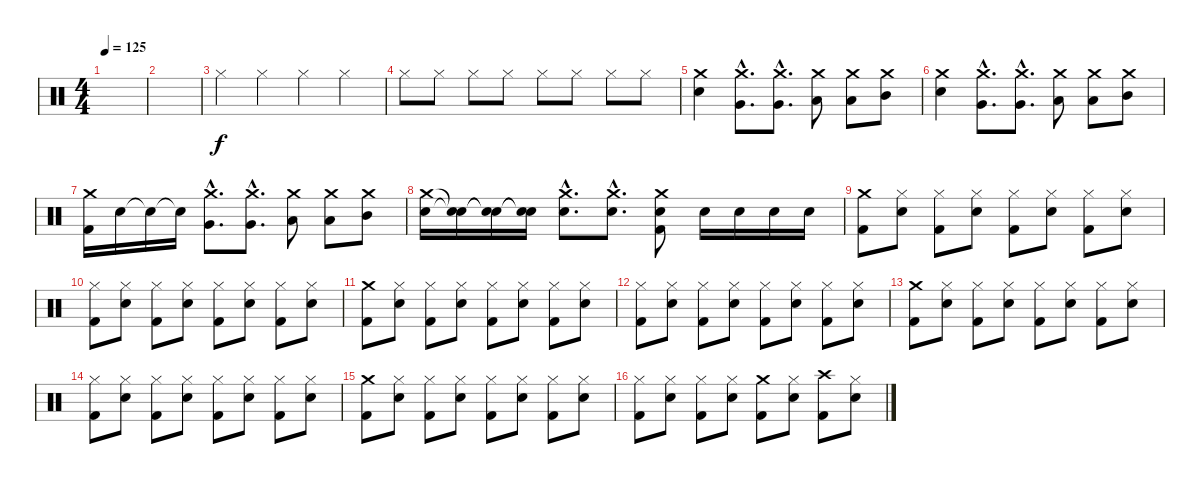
\track (" " " ") {instrument percussion}
\staff {score}
\articulation defaults
\ts (4 4)
\tempo 125
\clef neutral
\ks c
|
|
"Hi-Hat (closed)".4 "Hi-Hat (closed)".4 "Hi-Hat (closed)".4 "Hi-Hat (closed)".4 |
"Hi-Hat (closed)".8 "Hi-Hat (closed)".8 "Hi-Hat (closed)".8 "Hi-Hat (closed)".8 "Hi-Hat (closed)".8 "Hi-Hat (closed)".8 "Hi-Hat (closed)".8 "Hi-Hat (closed)".8 |
("Crash medium (hit)" "Snare (hit) 2").4 ("Crash medium (hit)"{hac} "Very Low Tom (hit)"{hac}).8{d} ("Crash medium (hit)"{hac} "Very Low Tom (hit)"{hac}).8{d} ("Crash medium (hit)" "Low Floor Tom (hit)").8 ("Crash medium (hit)" "Low Floor Tom (hit)").8 ("Crash medium (hit)" "Mid Tom (hit)").8 |
("Crash medium (hit)" "Snare (hit) 2").4 ("Crash medium (hit)"{hac} "Very Low Tom (hit)"{hac}).8{d} ("Crash medium (hit)"{hac} "Very Low Tom (hit)"{hac}).8{d} ("Crash medium (hit)" "Low Floor Tom (hit)").8 ("Crash medium (hit)" "Low Floor Tom (hit)").8 ("Crash medium (hit)" "Mid Tom (hit)").8 |
("Crash medium (hit)" "Kick (hit) 2").16 "Snare (hit) 2".16 "Snare (hit)"{t}.16 "Snare (hit)"{t}.16 ("Crash medium (hit)"{hac} "Very Low Tom (hit)"{hac}).8{d} ("Crash medium (hit)"{hac} "Very Low Tom (hit)"{hac}).8{d} ("Crash medium (hit)" "Low Floor Tom (hit)").8 ("Crash medium (hit)" "Low Floor Tom (hit)").8 ("Crash medium (hit)" "Mid Tom (hit)").8 |
("Crash medium (hit)" "Snare (hit) 2").16 ("Snare (hit)"{t} "Snare (hit)"{t}).16 ("Snare (hit)"{t} "Snare (hit)"{t}).16 ("Snare (hit)"{t} "Snare (hit)"{t}).16 ("Crash medium (hit)"{hac} "Snare (hit) 2"{hac}).8{d} ("Crash medium (hit)"{hac} "Snare (hit) 2"{hac}).8{d} ("Crash medium (hit)" "Snare (hit) 2" "Kick (hit) 2").8 "Snare (hit) 2".16 "Snare (hit) 2".16 "Snare (hit) 2".16 "Snare (hit) 2".16 |
("Crash medium (hit)" "Kick (hit) 2").8 ("Hi-Hat (closed)" "Snare (hit) 2").8 ("Hi-Hat (closed)" "Kick (hit) 2").8 ("Hi-Hat (closed)" "Snare (hit) 2").8 ("Hi-Hat (closed)" "Kick (hit) 2").8 ("Hi-Hat (closed)" "Snare (hit) 2").8 ("Hi-Hat (closed)" "Kick (hit) 2").8 ("Hi-Hat (closed)" "Snare (hit) 2").8 |
("Hi-Hat (closed)" "Kick (hit) 2").8 ("Hi-Hat (closed)" "Snare (hit) 2").8 ("Hi-Hat (closed)" "Kick (hit) 2").8 ("Hi-Hat (closed)" "Snare (hit) 2").8 ("Hi-Hat (closed)" "Kick (hit) 2").8 ("Hi-Hat (closed)" "Snare (hit) 2").8 ("Hi-Hat (closed)" "Kick (hit) 2").8 ("Hi-Hat (closed)" "Snare (hit) 2").8 |
("Crash medium (hit)" "Kick (hit) 2").8 ("Hi-Hat (closed)" "Snare (hit) 2").8 ("Hi-Hat (closed)" "Kick (hit) 2").8 ("Hi-Hat (closed)" "Snare (hit) 2").8 ("Hi-Hat (closed)" "Kick (hit) 2").8 ("Hi-Hat (closed)" "Snare (hit) 2").8 ("Hi-Hat (closed)" "Kick (hit) 2").8 ("Hi-Hat (closed)" "Snare (hit) 2").8 |
("Hi-Hat (closed)" "Kick (hit) 2").8 ("Hi-Hat (closed)" "Snare (hit) 2").8 ("Hi-Hat (closed)" "Kick (hit) 2").8 ("Hi-Hat (closed)" "Snare (hit) 2").8 ("Hi-Hat (closed)" "Kick (hit) 2").8 ("Hi-Hat (closed)" "Snare (hit) 2").8 ("Hi-Hat (closed)" "Kick (hit) 2").8 ("Hi-Hat (closed)" "Snare (hit) 2").8 |
("Crash medium (hit)" "Kick (hit) 2").8 ("Hi-Hat (closed)" "Snare (hit) 2").8 ("Hi-Hat (closed)" "Kick (hit) 2").8 ("Hi-Hat (closed)" "Snare (hit) 2").8 ("Hi-Hat (closed)" "Kick (hit) 2").8 ("Hi-Hat (closed)" "Snare (hit) 2").8 ("Hi-Hat (closed)" "Kick (hit) 2").8 ("Hi-Hat (closed)" "Snare (hit) 2").8 |
("Hi-Hat (closed)" "Kick (hit) 2").8 ("Hi-Hat (closed)" "Snare (hit) 2").8 ("Hi-Hat (closed)" "Kick (hit) 2").8 ("Hi-Hat (closed)" "Snare (hit) 2").8 ("Hi-Hat (closed)" "Kick (hit) 2").8 ("Hi-Hat (closed)" "Snare (hit) 2").8 ("Hi-Hat (closed)" "Kick (hit) 2").8 ("Hi-Hat (closed)" "Snare (hit) 2").8 |
("Crash medium (hit)" "Kick (hit) 2").8 ("Hi-Hat (closed)" "Snare (hit) 2").8 ("Hi-Hat (closed)" "Kick (hit) 2").8 ("Hi-Hat (closed)" "Snare (hit) 2").8 ("Hi-Hat (closed)" "Kick (hit) 2").8 ("Hi-Hat (closed)" "Snare (hit) 2").8 ("Hi-Hat (closed)" "Kick (hit) 2").8 ("Hi-Hat (closed)" "Snare (hit) 2").8 |
("Hi-Hat (closed)" "Kick (hit) 2").8 ("Hi-Hat (closed)" "Snare (hit) 2").8 ("Hi-Hat (closed)" "Kick (hit) 2").8 ("Hi-Hat (closed)" "Snare (hit) 2").8 ("Crash medium (hit)" "Kick (hit) 2").8 ("Hi-Hat (closed)" "Snare (hit) 2").8 ("Crash high (hit)" "Kick (hit) 2").8 ("Hi-Hat (closed)" "Snare (hit) 2").8
